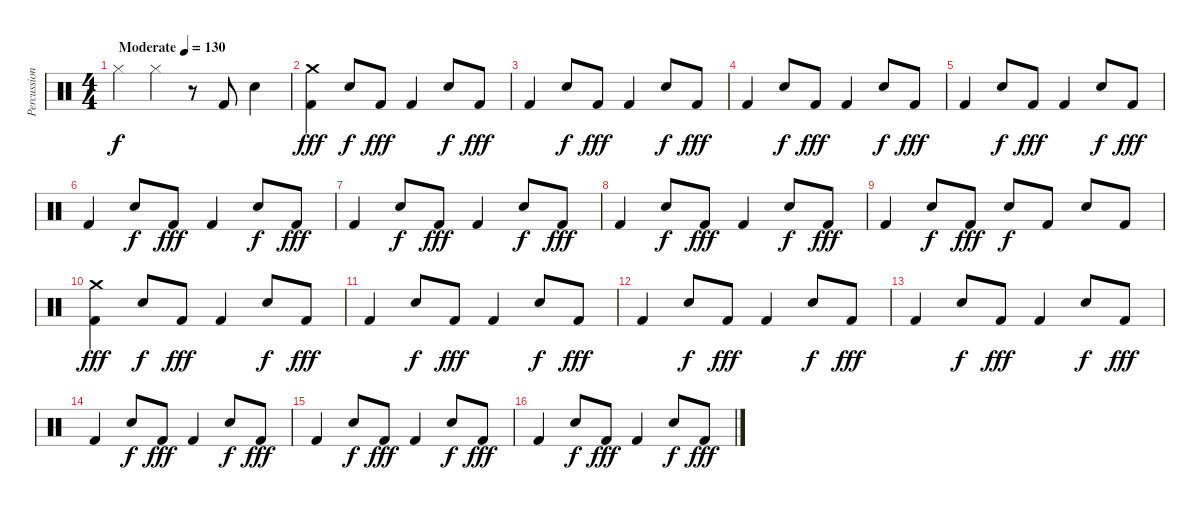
\track ("Percussion" "Percussion") {instrument percussion}
\staff {score}
\articulation defaults
\ts (4 4)
\tempo (130 "Moderate")
\clef neutral
\ks c "Hi-Hat (closed)".4{dy f} "Hi-Hat (closed)".4
r.8 "Kick (hit) 2".8 "Electric Snare (hit)".4 |
("Crash medium (hit)" "Kick (hit) 2").4{dy fff} "Electric Snare (hit)".8{dy f} "Kick (hit) 2".8{dy fff} "Kick (hit) 2".4 "Electric Snare (hit)".8{dy f} "Kick (hit) 2".8{dy fff} |
"Kick (hit) 2".4 "Electric Snare (hit)".8{dy f} "Kick (hit) 2".8{dy fff} "Kick (hit) 2".4 "Electric Snare (hit)".8{dy f} "Kick (hit) 2".8{dy fff} |
"Kick (hit) 2".4 "Electric Snare (hit)".8{dy f} "Kick (hit) 2".8{dy fff} "Kick (hit) 2".4 "Electric Snare (hit)".8{dy f} "Kick (hit) 2".8{dy fff} |
"Kick (hit) 2".4 "Electric Snare (hit)".8{dy f} "Kick (hit) 2".8{dy fff} "Kick (hit) 2".4 "Electric Snare (hit)".8{dy f} "Kick (hit) 2".8{dy fff} |
"Kick (hit) 2".4 "Electric Snare (hit)".8{dy f} "Kick (hit) 2".8{dy fff} "Kick (hit) 2".4 "Electric Snare (hit)".8{dy f} "Kick (hit) 2".8{dy fff} |
"Kick (hit) 2".4 "Electric Snare (hit)".8{dy f} "Kick (hit) 2".8{dy fff} "Kick (hit) 2".4 "Electric Snare (hit)".8{dy f} "Kick (hit) 2".8{dy fff} |
"Kick (hit) 2".4 "Electric Snare (hit)".8{dy f} "Kick (hit) 2".8{dy fff} "Kick (hit) 2".4 "Electric Snare (hit)".8{dy f} "Kick (hit) 2".8{dy fff} |
"Kick (hit) 2".4 "Electric Snare (hit)".8{dy f} "Kick (hit) 2".8{dy fff} "Electric Snare (hit)".8{dy f} "Kick (hit) 2".8 "Electric Snare (hit)".8 "Kick (hit) 2".8 |
("Crash medium (hit)" "Kick (hit) 2").4{dy fff} "Electric Snare (hit)".8{dy f} "Kick (hit) 2".8{dy fff} "Kick (hit) 2".4 "Electric Snare (hit)".8{dy f} "Kick (hit) 2".8{dy fff} |
"Kick (hit) 2".4 "Electric Snare (hit)".8{dy f} "Kick (hit) 2".8{dy fff} "Kick (hit) 2".4 "Electric Snare (hit)".8{dy f} "Kick (hit) 2".8{dy fff} |
"Kick (hit) 2".4 "Electric Snare (hit)".8{dy f} "Kick (hit) 2".8{dy fff} "Kick (hit) 2".4 "Electric Snare (hit)".8{dy f} "Kick (hit) 2".8{dy fff} |
"Kick (hit) 2".4 "Electric Snare (hit)".8{dy f} "Kick (hit) 2".8{dy fff} "Kick (hit) 2".4 "Electric Snare (hit)".8{dy f} "Kick (hit) 2".8{dy fff} |
"Kick (hit) 2".4 "Electric Snare (hit)".8{dy f} "Kick (hit) 2".8{dy fff} "Kick (hit) 2".4 "Electric Snare (hit)".8{dy f} "Kick (hit) 2".8{dy fff} |
"Kick (hit) 2".4 "Electric Snare (hit)".8{dy f} "Kick (hit) 2".8{dy fff} "Kick (hit) 2".4 "Electric Snare (hit)".8{dy f} "Kick (hit) 2".8{dy fff} |
"Kick (hit) 2".4 "Electric Snare (hit)".8{dy f} "Kick (hit) 2".8{dy fff} "Kick (hit) 2".4 "Electric Snare (hit)".8{dy f} "Kick (hit) 2".8{dy fff}
